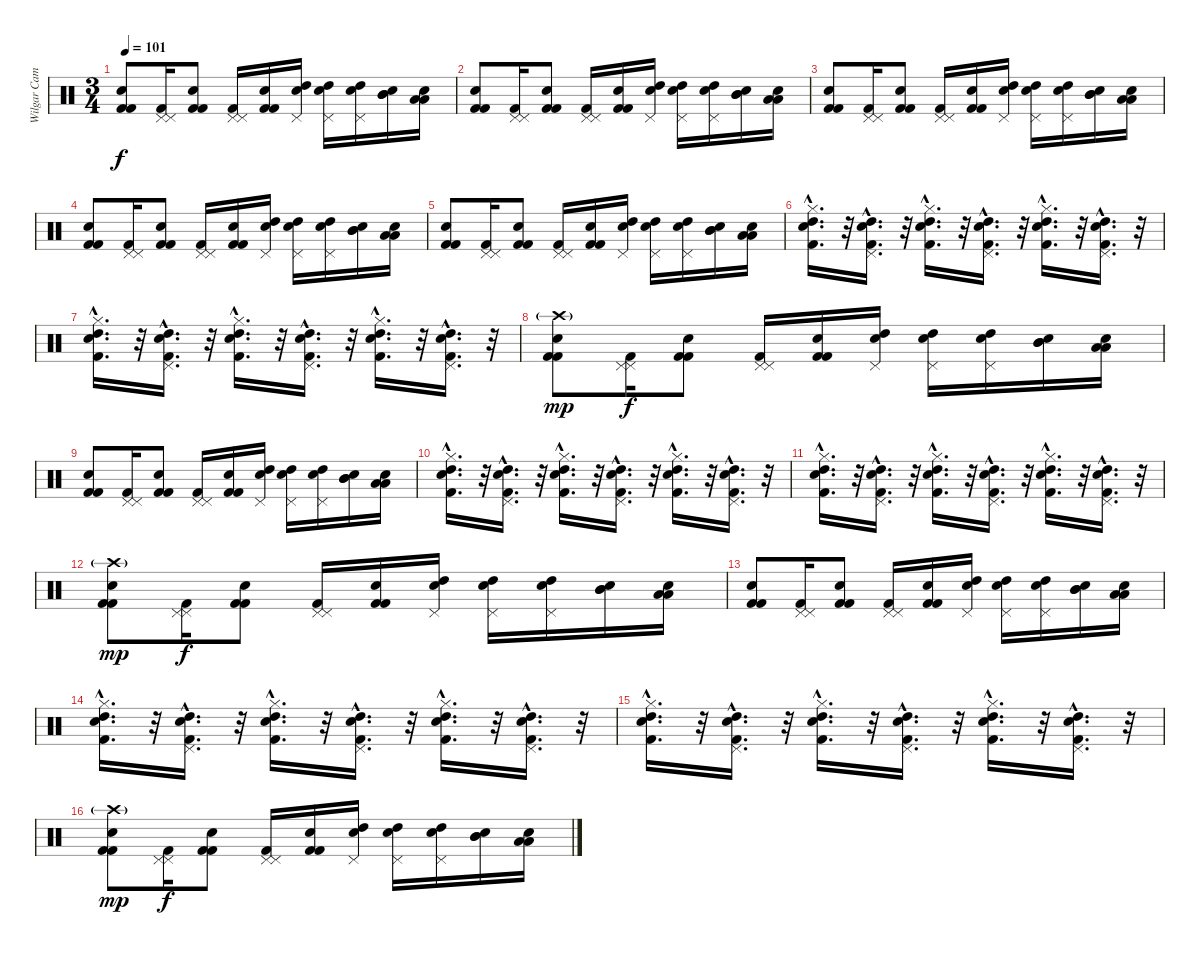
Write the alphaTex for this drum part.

\track ("Wilgar Campbell" "Wilgar Cam") {instrument percussion}
\staff {score}
\articulation defaults
\ts (3 4)
\tempo 101
\clef neutral
\ks c
("Electric Snare (hit)" "Kick (hit) 2" "Kick (hit) 2").8{dy f} ("Pedal Hi-Hat (hit)" "Pedal Hi-Hat (hit)" "Kick (hit) 2").16 ("Snare (hit) 2" "Kick (hit) 2" "Kick (hit) 2").8 ("Pedal Hi-Hat (hit)" "Pedal Hi-Hat (hit)" "Kick (hit) 2").16 ("Snare (hit) 2" "Kick (hit) 2" "Kick (hit) 2").16 ("Electric Snare (hit)" "Pedal Hi-Hat (hit)" "High Tom (hit)").16 ("Electric Snare (hit)" "Pedal Hi-Hat (hit)" "High Tom (hit)").16 ("Electric Snare (hit)" "Pedal Hi-Hat (hit)" "High Tom (hit)").16 ("Electric Snare (hit)" "Mid Tom (hit)" "Mid Tom (hit)").16 ("Electric Snare (hit)" "Low Tom (hit)" "Low Tom (hit)").16 |
("Electric Snare (hit)" "Kick (hit) 2" "Kick (hit) 2").8 ("Pedal Hi-Hat (hit)" "Pedal Hi-Hat (hit)" "Kick (hit) 2").16 ("Snare (hit) 2" "Kick (hit) 2" "Kick (hit) 2").8 ("Pedal Hi-Hat (hit)" "Pedal Hi-Hat (hit)" "Kick (hit) 2").16 ("Snare (hit) 2" "Kick (hit) 2" "Kick (hit) 2").16 ("Electric Snare (hit)" "Pedal Hi-Hat (hit)" "High Tom (hit)").16 ("Electric Snare (hit)" "Pedal Hi-Hat (hit)" "High Tom (hit)").16 ("Electric Snare (hit)" "Pedal Hi-Hat (hit)" "High Tom (hit)").16 ("Electric Snare (hit)" "Mid Tom (hit)" "Mid Tom (hit)").16 ("Electric Snare (hit)" "Low Tom (hit)" "Low Tom (hit)").16 |
("Electric Snare (hit)" "Kick (hit) 2" "Kick (hit) 2").8 ("Pedal Hi-Hat (hit)" "Pedal Hi-Hat (hit)" "Kick (hit) 2").16 ("Snare (hit) 2" "Kick (hit) 2" "Kick (hit) 2").8 ("Pedal Hi-Hat (hit)" "Pedal Hi-Hat (hit)" "Kick (hit) 2").16 ("Snare (hit) 2" "Kick (hit) 2" "Kick (hit) 2").16 ("Electric Snare (hit)" "Pedal Hi-Hat (hit)" "High Tom (hit)").16 ("Electric Snare (hit)" "Pedal Hi-Hat (hit)" "High Tom (hit)").16 ("Electric Snare (hit)" "Pedal Hi-Hat (hit)" "High Tom (hit)").16 ("Electric Snare (hit)" "Mid Tom (hit)" "Mid Tom (hit)").16 ("Electric Snare (hit)" "Low Tom (hit)" "Low Tom (hit)").16 |
("Electric Snare (hit)" "Kick (hit) 2" "Kick (hit) 2").8 ("Pedal Hi-Hat (hit)" "Pedal Hi-Hat (hit)" "Kick (hit) 2").16 ("Snare (hit) 2" "Kick (hit) 2" "Kick (hit) 2").8 ("Pedal Hi-Hat (hit)" "Pedal Hi-Hat (hit)" "Kick (hit) 2").16 ("Snare (hit) 2" "Kick (hit) 2" "Kick (hit) 2").16 ("Electric Snare (hit)" "Pedal Hi-Hat (hit)" "High Tom (hit)").16 ("Electric Snare (hit)" "Pedal Hi-Hat (hit)" "High Tom (hit)").16 ("Electric Snare (hit)" "Pedal Hi-Hat (hit)" "High Tom (hit)").16 ("Electric Snare (hit)" "Mid Tom (hit)" "Mid Tom (hit)").16 ("Electric Snare (hit)" "Low Tom (hit)" "Low Tom (hit)").16 |
("Electric Snare (hit)" "Kick (hit) 2" "Kick (hit) 2").8 ("Pedal Hi-Hat (hit)" "Pedal Hi-Hat (hit)" "Kick (hit) 2").16 ("Snare (hit) 2" "Kick (hit) 2" "Kick (hit) 2").8 ("Pedal Hi-Hat (hit)" "Pedal Hi-Hat (hit)" "Kick (hit) 2").16 ("Snare (hit) 2" "Kick (hit) 2" "Kick (hit) 2").16 ("Electric Snare (hit)" "Pedal Hi-Hat (hit)" "High Tom (hit)").16 ("Electric Snare (hit)" "Pedal Hi-Hat (hit)" "High Tom (hit)").16 ("Electric Snare (hit)" "Pedal Hi-Hat (hit)" "High Tom (hit)").16 ("Electric Snare (hit)" "Mid Tom (hit)" "Mid Tom (hit)").16 ("Electric Snare (hit)" "Low Tom (hit)" "Low Tom (hit)").16 |
("Hi-Hat (closed)"{hac} "Snare (hit) 2"{hac} "High Tom (hit)"{hac} "Kick (hit) 2"{hac}).16{d} r.32 ("Pedal Hi-Hat (hit)"{hac} "Snare (hit) 2"{hac} "High Tom (hit)"{hac} "Kick (hit) 2"{hac}).16{d} r.32 ("Hi-Hat (closed)"{hac} "Snare (hit) 2"{hac} "High Tom (hit)"{hac} "Kick (hit) 2"{hac}).16{d} r.32 ("Pedal Hi-Hat (hit)"{hac} "Snare (hit) 2"{hac} "High Tom (hit)"{hac} "Kick (hit) 2"{hac}).16{d} r.32 ("Hi-Hat (closed)"{hac} "Snare (hit) 2"{hac} "High Tom (hit)"{hac} "Kick (hit) 2"{hac}).16{d} r.32 ("Pedal Hi-Hat (hit)"{hac} "Snare (hit) 2"{hac} "High Tom (hit)"{hac} "Kick (hit) 2"{hac}).16{d} r.32 |
("Hi-Hat (closed)"{hac} "Snare (hit) 2"{hac} "High Tom (hit)"{hac} "Kick (hit) 2"{hac}).16{d} r.32 ("Pedal Hi-Hat (hit)"{hac} "Snare (hit) 2"{hac} "High Tom (hit)"{hac} "Kick (hit) 2"{hac}).16{d} r.32 ("Hi-Hat (closed)"{hac} "Snare (hit) 2"{hac} "High Tom (hit)"{hac} "Kick (hit) 2"{hac}).16{d} r.32 ("Pedal Hi-Hat (hit)"{hac} "Snare (hit) 2"{hac} "High Tom (hit)"{hac} "Kick (hit) 2"{hac}).16{d} r.32 ("Hi-Hat (closed)"{hac} "Snare (hit) 2"{hac} "High Tom (hit)"{hac} "Kick (hit) 2"{hac}).16{d} r.32 ("Pedal Hi-Hat (hit)"{hac} "Snare (hit) 2"{hac} "High Tom (hit)"{hac} "Kick (hit) 2"{hac}).16{d} r.32 |
("Crash high (hit)"{g} "Electric Snare (hit)" "Kick (hit) 2" "Kick (hit) 2").8{dy mp} ("Pedal Hi-Hat (hit)" "Pedal Hi-Hat (hit)" "Kick (hit) 2").16{dy f} ("Snare (hit) 2" "Kick (hit) 2" "Kick (hit) 2").8 ("Pedal Hi-Hat (hit)" "Pedal Hi-Hat (hit)" "Kick (hit) 2").16 ("Snare (hit) 2" "Kick (hit) 2" "Kick (hit) 2").16 ("Electric Snare (hit)" "Pedal Hi-Hat (hit)" "High Tom (hit)").16 ("Electric Snare (hit)" "Pedal Hi-Hat (hit)" "High Tom (hit)").16 ("Electric Snare (hit)" "Pedal Hi-Hat (hit)" "High Tom (hit)").16 ("Electric Snare (hit)" "Mid Tom (hit)" "Mid Tom (hit)").16 ("Electric Snare (hit)" "Low Tom (hit)" "Low Tom (hit)").16 |
("Electric Snare (hit)" "Kick (hit) 2" "Kick (hit) 2").8 ("Pedal Hi-Hat (hit)" "Pedal Hi-Hat (hit)" "Kick (hit) 2").16 ("Snare (hit) 2" "Kick (hit) 2" "Kick (hit) 2").8 ("Pedal Hi-Hat (hit)" "Pedal Hi-Hat (hit)" "Kick (hit) 2").16 ("Snare (hit) 2" "Kick (hit) 2" "Kick (hit) 2").16 ("Electric Snare (hit)" "Pedal Hi-Hat (hit)" "High Tom (hit)").16 ("Electric Snare (hit)" "Pedal Hi-Hat (hit)" "High Tom (hit)").16 ("Electric Snare (hit)" "Pedal Hi-Hat (hit)" "High Tom (hit)").16 ("Electric Snare (hit)" "Mid Tom (hit)" "Mid Tom (hit)").16 ("Electric Snare (hit)" "Low Tom (hit)" "Low Tom (hit)").16 |
("Hi-Hat (closed)"{hac} "Snare (hit) 2"{hac} "High Tom (hit)"{hac} "Kick (hit) 2"{hac}).16{d} r.32 ("Pedal Hi-Hat (hit)"{hac} "Snare (hit) 2"{hac} "High Tom (hit)"{hac} "Kick (hit) 2"{hac}).16{d} r.32 ("Hi-Hat (closed)"{hac} "Snare (hit) 2"{hac} "High Tom (hit)"{hac} "Kick (hit) 2"{hac}).16{d} r.32 ("Pedal Hi-Hat (hit)"{hac} "Snare (hit) 2"{hac} "High Tom (hit)"{hac} "Kick (hit) 2"{hac}).16{d} r.32 ("Hi-Hat (closed)"{hac} "Snare (hit) 2"{hac} "High Tom (hit)"{hac} "Kick (hit) 2"{hac}).16{d} r.32 ("Pedal Hi-Hat (hit)"{hac} "Snare (hit) 2"{hac} "High Tom (hit)"{hac} "Kick (hit) 2"{hac}).16{d} r.32 |
("Hi-Hat (closed)"{hac} "Snare (hit) 2"{hac} "High Tom (hit)"{hac} "Kick (hit) 2"{hac}).16{d} r.32 ("Pedal Hi-Hat (hit)"{hac} "Snare (hit) 2"{hac} "High Tom (hit)"{hac} "Kick (hit) 2"{hac}).16{d} r.32 ("Hi-Hat (closed)"{hac} "Snare (hit) 2"{hac} "High Tom (hit)"{hac} "Kick (hit) 2"{hac}).16{d} r.32 ("Pedal Hi-Hat (hit)"{hac} "Snare (hit) 2"{hac} "High Tom (hit)"{hac} "Kick (hit) 2"{hac}).16{d} r.32 ("Hi-Hat (closed)"{hac} "Snare (hit) 2"{hac} "High Tom (hit)"{hac} "Kick (hit) 2"{hac}).16{d} r.32 ("Pedal Hi-Hat (hit)"{hac} "Snare (hit) 2"{hac} "High Tom (hit)"{hac} "Kick (hit) 2"{hac}).16{d} r.32 |
("Crash high (hit)"{g} "Electric Snare (hit)" "Kick (hit) 2" "Kick (hit) 2").8{dy mp} ("Pedal Hi-Hat (hit)" "Pedal Hi-Hat (hit)" "Kick (hit) 2").16{dy f} ("Snare (hit) 2" "Kick (hit) 2" "Kick (hit) 2").8 ("Pedal Hi-Hat (hit)" "Pedal Hi-Hat (hit)" "Kick (hit) 2").16 ("Snare (hit) 2" "Kick (hit) 2" "Kick (hit) 2").16 ("Electric Snare (hit)" "Pedal Hi-Hat (hit)" "High Tom (hit)").16 ("Electric Snare (hit)" "Pedal Hi-Hat (hit)" "High Tom (hit)").16 ("Electric Snare (hit)" "Pedal Hi-Hat (hit)" "High Tom (hit)").16 ("Electric Snare (hit)" "Mid Tom (hit)" "Mid Tom (hit)").16 ("Electric Snare (hit)" "Low Tom (hit)" "Low Tom (hit)").16 |
("Electric Snare (hit)" "Kick (hit) 2" "Kick (hit) 2").8 ("Pedal Hi-Hat (hit)" "Pedal Hi-Hat (hit)" "Kick (hit) 2").16 ("Snare (hit) 2" "Kick (hit) 2" "Kick (hit) 2").8 ("Pedal Hi-Hat (hit)" "Pedal Hi-Hat (hit)" "Kick (hit) 2").16 ("Snare (hit) 2" "Kick (hit) 2" "Kick (hit) 2").16 ("Electric Snare (hit)" "Pedal Hi-Hat (hit)" "High Tom (hit)").16 ("Electric Snare (hit)" "Pedal Hi-Hat (hit)" "High Tom (hit)").16 ("Electric Snare (hit)" "Pedal Hi-Hat (hit)" "High Tom (hit)").16 ("Electric Snare (hit)" "Mid Tom (hit)" "Mid Tom (hit)").16 ("Electric Snare (hit)" "Low Tom (hit)" "Low Tom (hit)").16 |
("Hi-Hat (closed)"{hac} "Snare (hit) 2"{hac} "High Tom (hit)"{hac} "Kick (hit) 2"{hac}).16{d} r.32 ("Pedal Hi-Hat (hit)"{hac} "Snare (hit) 2"{hac} "High Tom (hit)"{hac} "Kick (hit) 2"{hac}).16{d} r.32 ("Hi-Hat (closed)"{hac} "Snare (hit) 2"{hac} "High Tom (hit)"{hac} "Kick (hit) 2"{hac}).16{d} r.32 ("Pedal Hi-Hat (hit)"{hac} "Snare (hit) 2"{hac} "High Tom (hit)"{hac} "Kick (hit) 2"{hac}).16{d} r.32 ("Hi-Hat (closed)"{hac} "Snare (hit) 2"{hac} "High Tom (hit)"{hac} "Kick (hit) 2"{hac}).16{d} r.32 ("Pedal Hi-Hat (hit)"{hac} "Snare (hit) 2"{hac} "High Tom (hit)"{hac} "Kick (hit) 2"{hac}).16{d} r.32 |
("Hi-Hat (closed)"{hac} "Snare (hit) 2"{hac} "High Tom (hit)"{hac} "Kick (hit) 2"{hac}).16{d} r.32 ("Pedal Hi-Hat (hit)"{hac} "Snare (hit) 2"{hac} "High Tom (hit)"{hac} "Kick (hit) 2"{hac}).16{d} r.32 ("Hi-Hat (closed)"{hac} "Snare (hit) 2"{hac} "High Tom (hit)"{hac} "Kick (hit) 2"{hac}).16{d} r.32 ("Pedal Hi-Hat (hit)"{hac} "Snare (hit) 2"{hac} "High Tom (hit)"{hac} "Kick (hit) 2"{hac}).16{d} r.32 ("Hi-Hat (closed)"{hac} "Snare (hit) 2"{hac} "High Tom (hit)"{hac} "Kick (hit) 2"{hac}).16{d} r.32 ("Pedal Hi-Hat (hit)"{hac} "Snare (hit) 2"{hac} "High Tom (hit)"{hac} "Kick (hit) 2"{hac}).16{d} r.32 |
("Crash high (hit)"{g} "Electric Snare (hit)" "Kick (hit) 2" "Kick (hit) 2").8{dy mp} ("Pedal Hi-Hat (hit)" "Pedal Hi-Hat (hit)" "Kick (hit) 2").16{dy f} ("Snare (hit) 2" "Kick (hit) 2" "Kick (hit) 2").8 ("Pedal Hi-Hat (hit)" "Pedal Hi-Hat (hit)" "Kick (hit) 2").16 ("Snare (hit) 2" "Kick (hit) 2" "Kick (hit) 2").16 ("Electric Snare (hit)" "Pedal Hi-Hat (hit)" "High Tom (hit)").16 ("Electric Snare (hit)" "Pedal Hi-Hat (hit)" "High Tom (hit)").16 ("Electric Snare (hit)" "Pedal Hi-Hat (hit)" "High Tom (hit)").16 ("Electric Snare (hit)" "Mid Tom (hit)" "Mid Tom (hit)").16 ("Electric Snare (hit)" "Low Tom (hit)" "Low Tom (hit)").16
